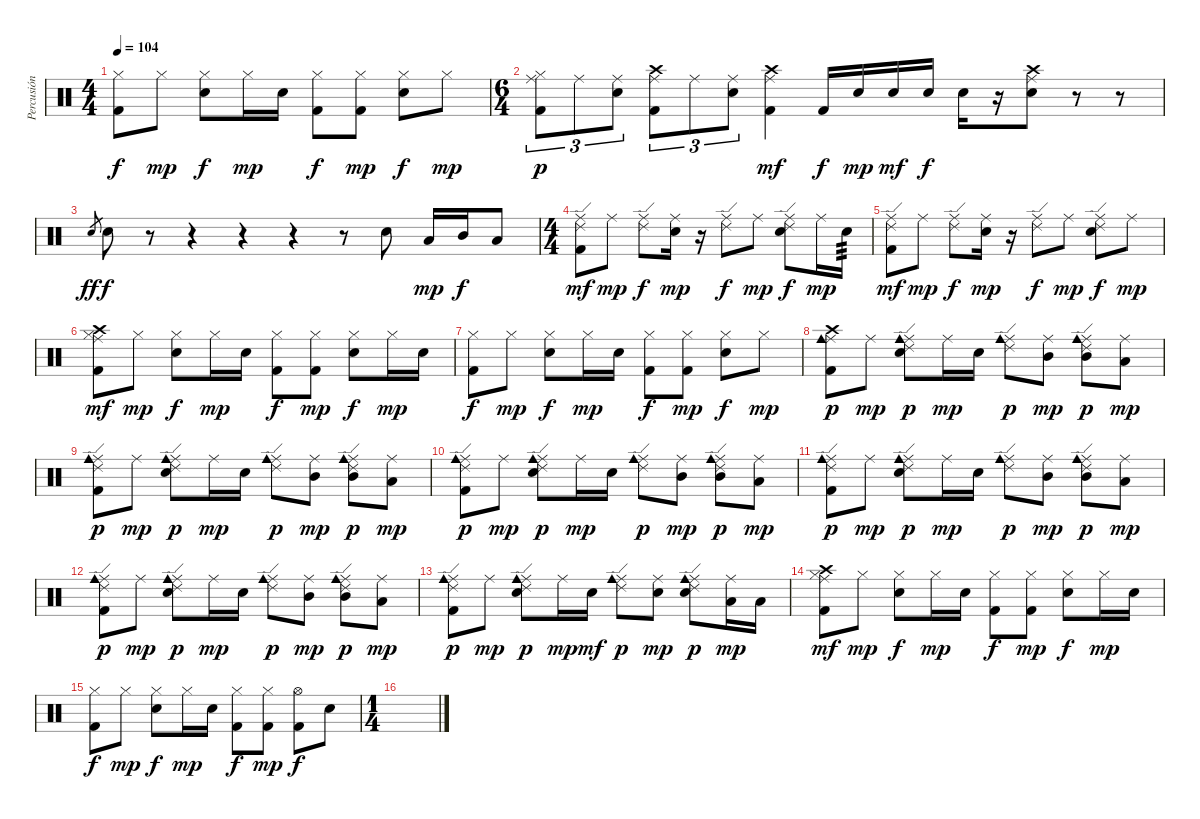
\track ("Percusión" "Percusión") {instrument percussion}
\staff {score}
\articulation defaults
\ts (4 4)
\tempo 104
\clef neutral
\ks c
("Hi-Hat (closed)" "Kick (hit) 2").8{dy f} "Hi-Hat (closed)".8{dy mp} ("Hi-Hat (closed)" "Snare (hit) 2").8{dy f} "Hi-Hat (closed)".16{dy mp} "Snare (hit) 2".16 ("Hi-Hat (closed)" "Kick (hit) 2").8{dy f} ("Hi-Hat (closed)" "Kick (hit) 2").8{dy mp} ("Hi-Hat (closed)" "Snare (hit) 2").8{dy f} "Hi-Hat (closed)".8{dy mp} |
\ts (6 4)
("Ride (middle)" "Hi-Hat (closed)" "Kick (hit) 2").8{tu (3 2) dy p} "Ride (middle)".8{tu (3 2)} ("Ride (middle)" "Snare (hit) 2").8{tu (3 2)} ("Crash high (hit)" "Ride (middle)" "Kick (hit) 2").8{tu (3 2)} "Ride (middle)".8{tu (3 2)} ("Ride (middle)" "Snare (hit) 2").8{tu (3 2)} ("Crash high (hit)" "Ride (middle)" "Kick (hit) 2").4{dy mf} "Kick (hit) 2".16{dy f} "Snare (hit) 2".16{dy mp} "Snare (hit) 2".16{dy mf} "Snare (hit) 2".16{dy f} "Snare (hit) 2".16 r.16 ("Crash high (hit)" "Ride (middle)" "Snare (hit) 2").8 r.8 r.8 |
"Snare (hit) 2".8{gr dy ff} "Snare (hit) 2".8{dy f} r.8 r.4 r.4 r.4 r.8 "Snare (hit) 2".8 "Low Tom (hit)".16{dy mp} "Mid Tom (hit)".16{dy f} "Low Tom (hit)".8 |
\ts (4 4)
("Ride (edge) 2" "Ride (middle)" "Kick (hit) 2").8{dy mf} "Ride (middle)".8{dy mp} ("Ride (edge) 2" "Ride (middle)").8{dy f} ("Ride (middle)" "Snare (hit) 2").16{dy mp} r.16 ("Ride (edge) 2" "Ride (middle)").8{dy f} "Ride (middle)".8{dy mp} ("Ride (edge) 2" "Ride (middle)" "Snare (hit) 2").8{dy f} "Ride (middle)".16{dy mp} "Snare (hit) 2".16{tp 3} |
("Ride (edge) 2" "Ride (middle)" "Kick (hit) 2").8{dy mf} "Ride (middle)".8{dy mp} ("Ride (edge) 2" "Ride (middle)").8{dy f} ("Ride (middle)" "Snare (hit) 2").16{dy mp} r.16 ("Ride (edge) 2" "Ride (middle)").8{dy f} "Ride (middle)".8{dy mp} ("Ride (edge) 2" "Ride (middle)" "Snare (hit) 2").8{dy f} "Ride (middle)".8{dy mp} |
("Crash high (hit)" "Ride (middle)" "Hi-Hat (closed)" "Kick (hit) 2").8{dy mf} "Hi-Hat (closed)".8{dy mp} ("Hi-Hat (closed)" "Snare (hit) 2").8{dy f} "Hi-Hat (closed)".16{dy mp} "Snare (hit) 2".16 ("Hi-Hat (closed)" "Kick (hit) 2").8{dy f} ("Hi-Hat (closed)" "Kick (hit) 2").8{dy mp} ("Hi-Hat (closed)" "Snare (hit) 2").8{dy f} "Hi-Hat (closed)".16{dy mp} "Snare (hit) 2".16 |
("Hi-Hat (closed)" "Kick (hit) 2").8{dy f} "Hi-Hat (closed)".8{dy mp} ("Hi-Hat (closed)" "Snare (hit) 2").8{dy f} "Hi-Hat (closed)".16{dy mp} "Snare (hit) 2".16 ("Hi-Hat (closed)" "Kick (hit) 2").8{dy f} ("Hi-Hat (closed)" "Kick (hit) 2").8{dy mp} ("Hi-Hat (closed)" "Snare (hit) 2").8{dy f} "Hi-Hat (closed)".8{dy mp} |
("Crash high (hit)" "Ride (middle)" "Cowbell medium (hit)" "Kick (hit) 2").8{dy p} "Ride (middle)".8{dy mp} ("Ride (edge) 2" "Ride (middle)" "Cowbell medium (hit)" "Snare (hit) 2").8{dy p} "Ride (middle)".16{dy mp} "Snare (hit) 2".16 ("Ride (edge) 2" "Ride (middle)" "Cowbell medium (hit)").8{dy p} ("Ride (middle)" "Mid Tom (hit)").8{dy mp} ("Ride (edge) 2" "Ride (middle)" "Cowbell medium (hit)" "Mid Tom (hit)").8{dy p} ("Ride (middle)" "Low Tom (hit)").8{dy mp} |
("Ride (edge) 2" "Ride (middle)" "Cowbell medium (hit)" "Kick (hit) 2").8{dy p} "Ride (middle)".8{dy mp} ("Ride (edge) 2" "Ride (middle)" "Cowbell medium (hit)" "Snare (hit) 2").8{dy p} "Ride (middle)".16{dy mp} "Snare (hit) 2".16 ("Ride (edge) 2" "Ride (middle)" "Cowbell medium (hit)").8{dy p} ("Ride (middle)" "Mid Tom (hit)").8{dy mp} ("Ride (edge) 2" "Ride (middle)" "Cowbell medium (hit)" "Mid Tom (hit)").8{dy p} ("Ride (middle)" "Low Tom (hit)").8{dy mp} |
("Ride (edge) 2" "Ride (middle)" "Cowbell medium (hit)" "Kick (hit) 2").8{dy p} "Ride (middle)".8{dy mp} ("Ride (edge) 2" "Ride (middle)" "Cowbell medium (hit)" "Snare (hit) 2").8{dy p} "Ride (middle)".16{dy mp} "Snare (hit) 2".16 ("Ride (edge) 2" "Ride (middle)" "Cowbell medium (hit)").8{dy p} ("Ride (middle)" "Mid Tom (hit)").8{dy mp} ("Ride (edge) 2" "Ride (middle)" "Cowbell medium (hit)" "Mid Tom (hit)").8{dy p} ("Ride (middle)" "Low Tom (hit)").8{dy mp} |
("Ride (edge) 2" "Ride (middle)" "Cowbell medium (hit)" "Kick (hit) 2").8{dy p} "Ride (middle)".8{dy mp} ("Ride (edge) 2" "Ride (middle)" "Cowbell medium (hit)" "Snare (hit) 2").8{dy p} "Ride (middle)".16{dy mp} "Snare (hit) 2".16 ("Ride (edge) 2" "Ride (middle)" "Cowbell medium (hit)").8{dy p} ("Ride (middle)" "Mid Tom (hit)").8{dy mp} ("Ride (edge) 2" "Ride (middle)" "Cowbell medium (hit)" "Mid Tom (hit)").8{dy p} ("Ride (middle)" "Low Tom (hit)").8{dy mp} |
("Ride (edge) 2" "Ride (middle)" "Cowbell medium (hit)" "Kick (hit) 2").8{dy p} "Ride (middle)".8{dy mp} ("Ride (edge) 2" "Ride (middle)" "Cowbell medium (hit)" "Snare (hit) 2").8{dy p} "Ride (middle)".16{dy mp} "Snare (hit) 2".16 ("Ride (edge) 2" "Ride (middle)" "Cowbell medium (hit)").8{dy p} ("Ride (middle)" "Mid Tom (hit)").8{dy mp} ("Ride (edge) 2" "Ride (middle)" "Cowbell medium (hit)" "Mid Tom (hit)").8{dy p} ("Ride (middle)" "Low Tom (hit)").8{dy mp} |
("Ride (edge) 2" "Ride (middle)" "Cowbell medium (hit)" "Kick (hit) 2").8{dy p} "Ride (middle)".8{dy mp} ("Ride (edge) 2" "Ride (middle)" "Cowbell medium (hit)" "Snare (hit) 2").8{dy p} "Ride (middle)".16{dy mp} "Snare (hit) 2".16{dy mf} ("Ride (edge) 2" "Ride (middle)" "Cowbell medium (hit)").8{dy p} ("Ride (middle)" "Snare (hit) 2").8{dy mp} ("Ride (edge) 2" "Ride (middle)" "Cowbell medium (hit)" "Snare (hit) 2").8{dy p} ("Ride (middle)" "Low Tom (hit)").16{dy mp} "Low Tom (hit)".16 |
("Crash high (hit)" "Ride (middle)" "Hi-Hat (closed)" "Kick (hit) 2").8{dy mf} "Hi-Hat (closed)".8{dy mp} ("Hi-Hat (closed)" "Snare (hit) 2").8{dy f} "Hi-Hat (closed)".16{dy mp} "Snare (hit) 2".16 ("Hi-Hat (closed)" "Kick (hit) 2").8{dy f} ("Hi-Hat (closed)" "Kick (hit) 2").8{dy mp} ("Hi-Hat (closed)" "Snare (hit) 2").8{dy f} "Hi-Hat (closed)".16{dy mp} "Snare (hit) 2".16 |
("Hi-Hat (closed)" "Kick (hit) 2").8{dy f} "Hi-Hat (closed)".8{dy mp} ("Hi-Hat (closed)" "Snare (hit) 2").8{dy f} "Hi-Hat (closed)".16{dy mp} "Snare (hit) 2".16 ("Hi-Hat (closed)" "Kick (hit) 2").8{dy f} ("Hi-Hat (closed)" "Kick (hit) 2").8{dy mp} ("Hi-Hat (open)" "Kick (hit) 2").8{dy f} "Snare (hit) 2".8 |
\ts (1 4)
